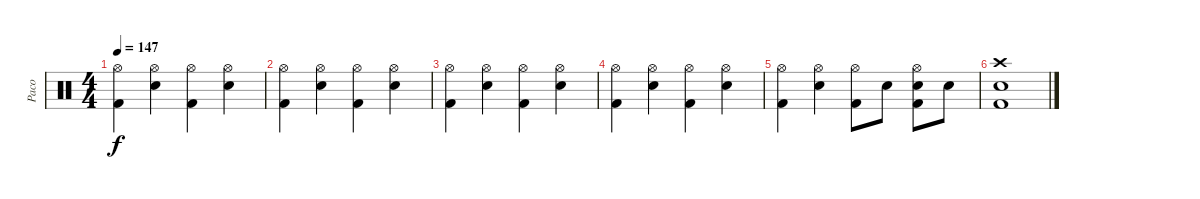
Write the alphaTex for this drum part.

\track ("Paco" "Paco") {instrument percussion}
\staff {score}
\articulation defaults
\ts (4 4)
\tempo 147
\clef neutral
\ks c
("Hi-Hat (open)" "Kick (hit) 2").4{dy f} ("Hi-Hat (open)" "Snare (hit) 2").4 ("Hi-Hat (open)" "Kick (hit) 2").4 ("Hi-Hat (open)" "Snare (hit) 2").4 |
("Hi-Hat (open)" "Kick (hit) 2").4 ("Hi-Hat (open)" "Snare (hit) 2").4 ("Hi-Hat (open)" "Kick (hit) 2").4 ("Hi-Hat (open)" "Snare (hit) 2").4 |
("Hi-Hat (open)" "Kick (hit) 2").4 ("Hi-Hat (open)" "Snare (hit) 2").4 ("Hi-Hat (open)" "Kick (hit) 2").4 ("Hi-Hat (open)" "Snare (hit) 2").4 |
("Hi-Hat (open)" "Kick (hit) 2").4 ("Hi-Hat (open)" "Snare (hit) 2").4 ("Hi-Hat (open)" "Kick (hit) 2").4 ("Hi-Hat (open)" "Snare (hit) 2").4 |
("Hi-Hat (open)" "Kick (hit) 2").4 ("Hi-Hat (open)" "Snare (hit) 2").4 ("Hi-Hat (open)" "Kick (hit) 2").8 "Snare (hit) 2".8 ("Hi-Hat (open)" "Snare (hit) 2" "Kick (hit) 2").8 "Snare (hit) 2".8 |
("Crash high (hit)" "Snare (hit) 2" "Kick (hit) 2").1
